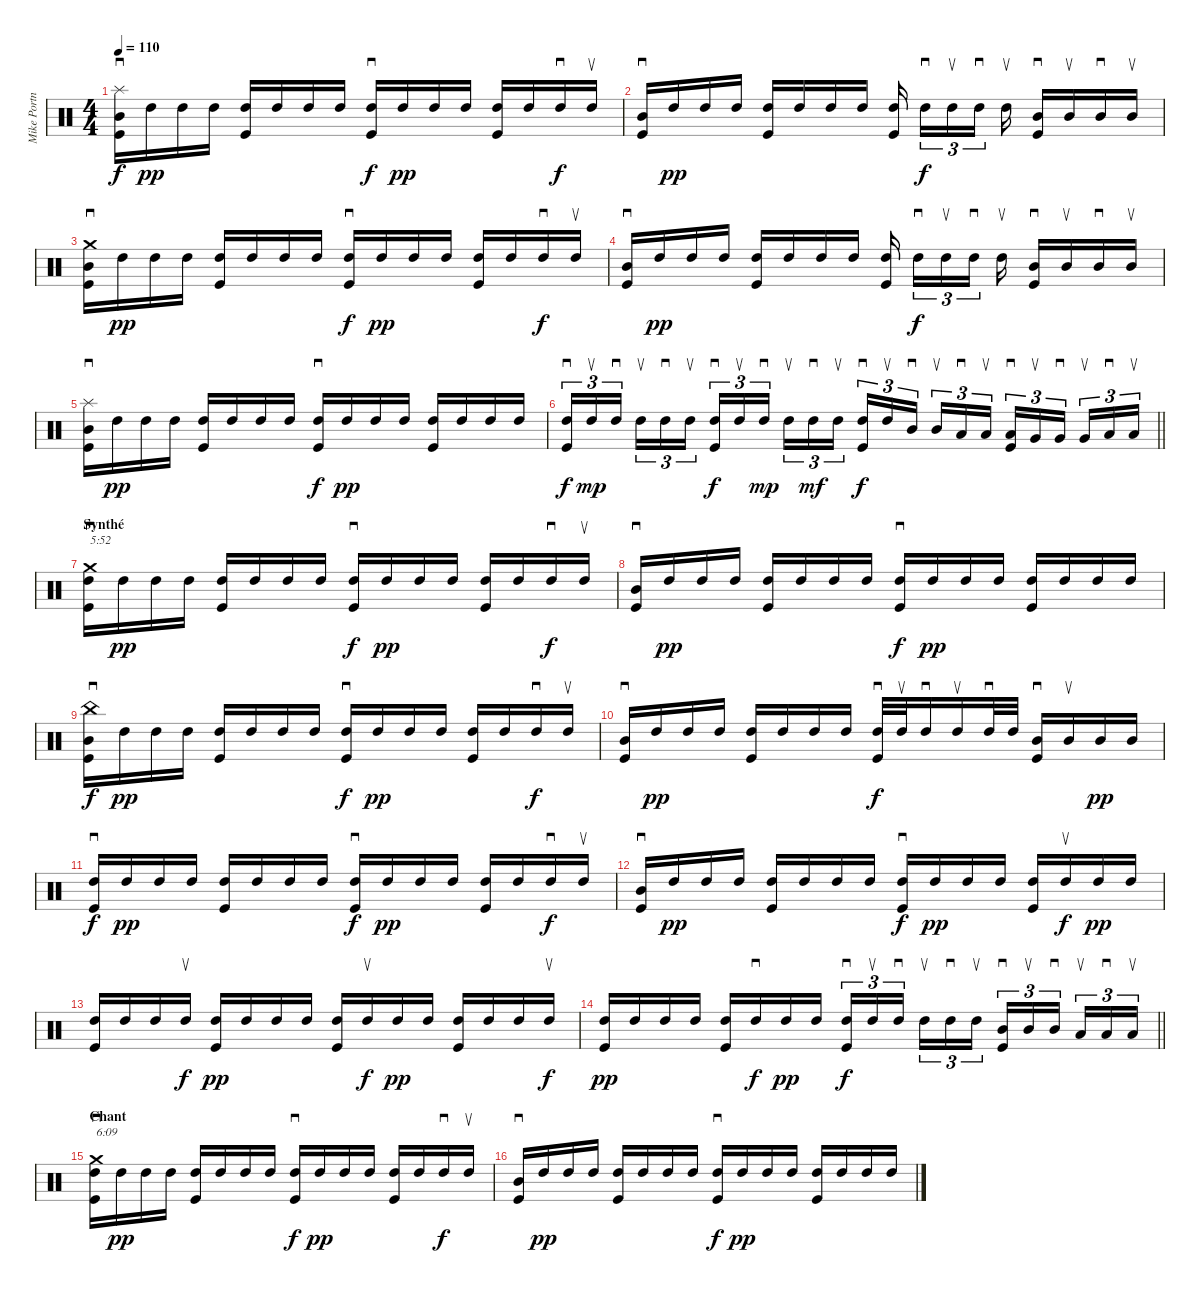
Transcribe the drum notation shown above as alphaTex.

\track ("Mike Portnoy" "Mike Portn") {instrument percussion}
\staff {score}
\articulation defaults
\ts (4 4)
\tempo 110
\clef neutral
\ks c
("Splash (hit)" "Mid Tom (hit)" "Kick (hit)").16{sd dy f} "High Tom (hit)".16{dy pp} "High Tom (hit)".16 "High Tom (hit)".16 ("High Tom (hit)" "Kick (hit)").16 "High Tom (hit)".16 "High Tom (hit)".16 "High Tom (hit)".16 ("High Tom (hit)" "Kick (hit)").16{sd dy f} "High Tom (hit)".16{dy pp} "High Tom (hit)".16 "High Tom (hit)".16 ("High Tom (hit)" "Kick (hit)").16 "High Tom (hit)".16 "High Tom (hit)".16{sd dy f} "High Tom (hit)".16{su} |
("Mid Tom (hit)" "Kick (hit)").16{sd} "High Tom (hit)".16{dy pp} "High Tom (hit)".16 "High Tom (hit)".16 ("High Tom (hit)" "Kick (hit)").16 "High Tom (hit)".16 "High Tom (hit)".16 "High Tom (hit)".16 ("High Tom (hit)" "Kick (hit)").16 "High Tom (hit)".16{sd tu (3 2) dy f} "High Tom (hit)".16{su tu (3 2)} "High Tom (hit)".16{sd tu (3 2)} "High Tom (hit)".16{su} ("Mid Tom (hit)" "Kick (hit)").16{sd} "Mid Tom (hit)".16{su} "Mid Tom (hit)".16{sd} "Mid Tom (hit)".16{su} |
("Crash medium (hit)" "Mid Tom (hit)" "Kick (hit)").16{sd} "High Tom (hit)".16{dy pp} "High Tom (hit)".16 "High Tom (hit)".16 ("High Tom (hit)" "Kick (hit)").16 "High Tom (hit)".16 "High Tom (hit)".16 "High Tom (hit)".16 ("High Tom (hit)" "Kick (hit)").16{sd dy f} "High Tom (hit)".16{dy pp} "High Tom (hit)".16 "High Tom (hit)".16 ("High Tom (hit)" "Kick (hit)").16 "High Tom (hit)".16 "High Tom (hit)".16{sd dy f} "High Tom (hit)".16{su} |
("Mid Tom (hit)" "Kick (hit)").16{sd} "High Tom (hit)".16{dy pp} "High Tom (hit)".16 "High Tom (hit)".16 ("High Tom (hit)" "Kick (hit)").16 "High Tom (hit)".16 "High Tom (hit)".16 "High Tom (hit)".16 ("High Tom (hit)" "Kick (hit)").16 "High Tom (hit)".16{sd tu (3 2) dy f} "High Tom (hit)".16{su tu (3 2)} "High Tom (hit)".16{sd tu (3 2)} "High Tom (hit)".16{su} ("Mid Tom (hit)" "Kick (hit)").16{sd} "Mid Tom (hit)".16{su} "Mid Tom (hit)".16{sd} "Mid Tom (hit)".16{su} |
("Splash (hit)" "Mid Tom (hit)" "Kick (hit)").16{sd} "High Tom (hit)".16{dy pp} "High Tom (hit)".16 "High Tom (hit)".16 ("High Tom (hit)" "Kick (hit)").16 "High Tom (hit)".16 "High Tom (hit)".16 "High Tom (hit)".16 ("High Tom (hit)" "Kick (hit)").16{sd dy f} "High Tom (hit)".16{dy pp} "High Tom (hit)".16 "High Tom (hit)".16 ("High Tom (hit)" "Kick (hit)").16 "High Tom (hit)".16 "High Tom (hit)".16 "High Tom (hit)".16 |
\barLineRight lightlight
("High Tom (hit)" "Kick (hit)").16{sd tu (3 2) dy f} "High Tom (hit)".16{su tu (3 2) dy mp} "High Tom (hit)".16{sd tu (3 2)} "High Tom (hit)".16{su tu (3 2)} "High Tom (hit)".16{sd tu (3 2)} "High Tom (hit)".16{su tu (3 2)} ("High Tom (hit)" "Kick (hit)").16{sd tu (3 2) dy f} "High Tom (hit)".16{su tu (3 2)} "High Tom (hit)".16{sd tu (3 2) dy mp} "High Tom (hit)".16{su tu (3 2)} "High Tom (hit)".16{sd tu (3 2) dy mf} "High Tom (hit)".16{su tu (3 2)} ("High Tom (hit)" "Kick (hit)").16{sd tu (3 2) dy f} "High Tom (hit)".16{su tu (3 2)} "Mid Tom (hit)".16{sd tu (3 2)} "Mid Tom (hit)".16{su tu (3 2)} "Low Tom (hit)".16{sd tu (3 2)} "Low Tom (hit)".16{su tu (3 2)} ("Low Tom (hit)" "Kick (hit)").16{sd tu (3 2)} "Very Low Tom (hit)".16{su tu (3 2)} "Very Low Tom (hit)".16{sd tu (3 2)} "Very Low Tom (hit)".16{su tu (3 2)} "Low Floor Tom (hit)".16{sd tu (3 2)} "Low Floor Tom (hit)".16{su tu (3 2)} |
\section ("" "Synthé")
("Crash medium (hit)" "High Tom (hit)" "Kick (hit)").16{sd txt "5:52"} "High Tom (hit)".16{dy pp} "High Tom (hit)".16 "High Tom (hit)".16 ("High Tom (hit)" "Kick (hit)").16 "High Tom (hit)".16 "High Tom (hit)".16 "High Tom (hit)".16 ("High Tom (hit)" "Kick (hit)").16{sd dy f} "High Tom (hit)".16{dy pp} "High Tom (hit)".16 "High Tom (hit)".16 ("High Tom (hit)" "Kick (hit)").16 "High Tom (hit)".16 "High Tom (hit)".16{sd dy f} "High Tom (hit)".16{su} |
("Mid Tom (hit)" "Kick (hit)").16{sd} "High Tom (hit)".16{dy pp} "High Tom (hit)".16 "High Tom (hit)".16 ("High Tom (hit)" "Kick (hit)").16 "High Tom (hit)".16 "High Tom (hit)".16 "High Tom (hit)".16 ("High Tom (hit)" "Kick (hit)").16{sd dy f} "High Tom (hit)".16{dy pp} "High Tom (hit)".16 "High Tom (hit)".16 ("High Tom (hit)" "Kick (hit)").16 "High Tom (hit)".16 "High Tom (hit)".16 "High Tom (hit)".16 |
("China (hit)" "Mid Tom (hit)" "Kick (hit)").16{sd dy f} "High Tom (hit)".16{dy pp} "High Tom (hit)".16 "High Tom (hit)".16 ("High Tom (hit)" "Kick (hit)").16 "High Tom (hit)".16 "High Tom (hit)".16 "High Tom (hit)".16 ("High Tom (hit)" "Kick (hit)").16{sd dy f} "High Tom (hit)".16{dy pp} "High Tom (hit)".16 "High Tom (hit)".16 ("High Tom (hit)" "Kick (hit)").16 "High Tom (hit)".16 "High Tom (hit)".16{sd dy f} "High Tom (hit)".16{su} |
("Mid Tom (hit)" "Kick (hit)").16{sd} "High Tom (hit)".16{dy pp} "High Tom (hit)".16 "High Tom (hit)".16 ("High Tom (hit)" "Kick (hit)").16 "High Tom (hit)".16 "High Tom (hit)".16 "High Tom (hit)".16 ("High Tom (hit)" "Kick (hit)").32{sd dy f} "High Tom (hit)".32{su} "High Tom (hit)".16{sd} "High Tom (hit)".16{su} "High Tom (hit)".32{sd} "High Tom (hit)".32 ("Mid Tom (hit)" "Kick (hit)").16{sd} "Mid Tom (hit)".16{su} "Mid Tom (hit)".16{dy pp} "Mid Tom (hit)".16 |
("High Tom (hit)" "Kick (hit)").16{sd dy f} "High Tom (hit)".16{dy pp} "High Tom (hit)".16 "High Tom (hit)".16 ("High Tom (hit)" "Kick (hit)").16 "High Tom (hit)".16 "High Tom (hit)".16 "High Tom (hit)".16 ("High Tom (hit)" "Kick (hit)").16{sd dy f} "High Tom (hit)".16{dy pp} "High Tom (hit)".16 "High Tom (hit)".16 ("High Tom (hit)" "Kick (hit)").16 "High Tom (hit)".16 "High Tom (hit)".16{sd dy f} "High Tom (hit)".16{su} |
("Mid Tom (hit)" "Kick (hit)").16{sd} "High Tom (hit)".16{dy pp} "High Tom (hit)".16 "High Tom (hit)".16 ("High Tom (hit)" "Kick (hit)").16 "High Tom (hit)".16 "High Tom (hit)".16 "High Tom (hit)".16 ("High Tom (hit)" "Kick (hit)").16{sd dy f} "High Tom (hit)".16{dy pp} "High Tom (hit)".16 "High Tom (hit)".16 ("High Tom (hit)" "Kick (hit)").16 "High Tom (hit)".16{su dy f} "High Tom (hit)".16{dy pp} "High Tom (hit)".16 |
("High Tom (hit)" "Kick (hit)").16 "High Tom (hit)".16 "High Tom (hit)".16 "High Tom (hit)".16{su dy f} ("High Tom (hit)" "Kick (hit)").16{dy pp} "High Tom (hit)".16 "High Tom (hit)".16 "High Tom (hit)".16 ("High Tom (hit)" "Kick (hit)").16 "High Tom (hit)".16{su dy f} "High Tom (hit)".16{dy pp} "High Tom (hit)".16 ("High Tom (hit)" "Kick (hit)").16 "High Tom (hit)".16 "High Tom (hit)".16 "High Tom (hit)".16{su dy f} |
\barLineRight lightlight
("High Tom (hit)" "Kick (hit)").16{dy pp} "High Tom (hit)".16 "High Tom (hit)".16 "High Tom (hit)".16 ("High Tom (hit)" "Kick (hit)").16 "High Tom (hit)".16{sd dy f} "High Tom (hit)".16{dy pp} "High Tom (hit)".16 ("High Tom (hit)" "Kick (hit)").16{sd tu (3 2) dy f} "High Tom (hit)".16{su tu (3 2)} "High Tom (hit)".16{sd tu (3 2)} "High Tom (hit)".16{su tu (3 2)} "High Tom (hit)".16{sd tu (3 2)} "High Tom (hit)".16{su tu (3 2)} ("Mid Tom (hit)" "Kick (hit)").16{sd tu (3 2)} "Mid Tom (hit)".16{su tu (3 2)} "Mid Tom (hit)".16{sd tu (3 2)} "Low Tom (hit)".16{su tu (3 2)} "Low Tom (hit)".16{sd tu (3 2)} "Low Tom (hit)".16{su tu (3 2)} |
\section ("" "Chant")
("Crash medium (hit)" "High Tom (hit)" "Kick (hit)").16{sd txt "6:09"} "High Tom (hit)".16{dy pp} "High Tom (hit)".16 "High Tom (hit)".16 ("High Tom (hit)" "Kick (hit)").16 "High Tom (hit)".16 "High Tom (hit)".16 "High Tom (hit)".16 ("High Tom (hit)" "Kick (hit)").16{sd dy f} "High Tom (hit)".16{dy pp} "High Tom (hit)".16 "High Tom (hit)".16 ("High Tom (hit)" "Kick (hit)").16 "High Tom (hit)".16 "High Tom (hit)".16{sd dy f} "High Tom (hit)".16{su} |
("Mid Tom (hit)" "Kick (hit)").16{sd} "High Tom (hit)".16{dy pp} "High Tom (hit)".16 "High Tom (hit)".16 ("High Tom (hit)" "Kick (hit)").16 "High Tom (hit)".16 "High Tom (hit)".16 "High Tom (hit)".16 ("High Tom (hit)" "Kick (hit)").16{sd dy f} "High Tom (hit)".16{dy pp} "High Tom (hit)".16 "High Tom (hit)".16 ("High Tom (hit)" "Kick (hit)").16 "High Tom (hit)".16 "High Tom (hit)".16 "High Tom (hit)".16
